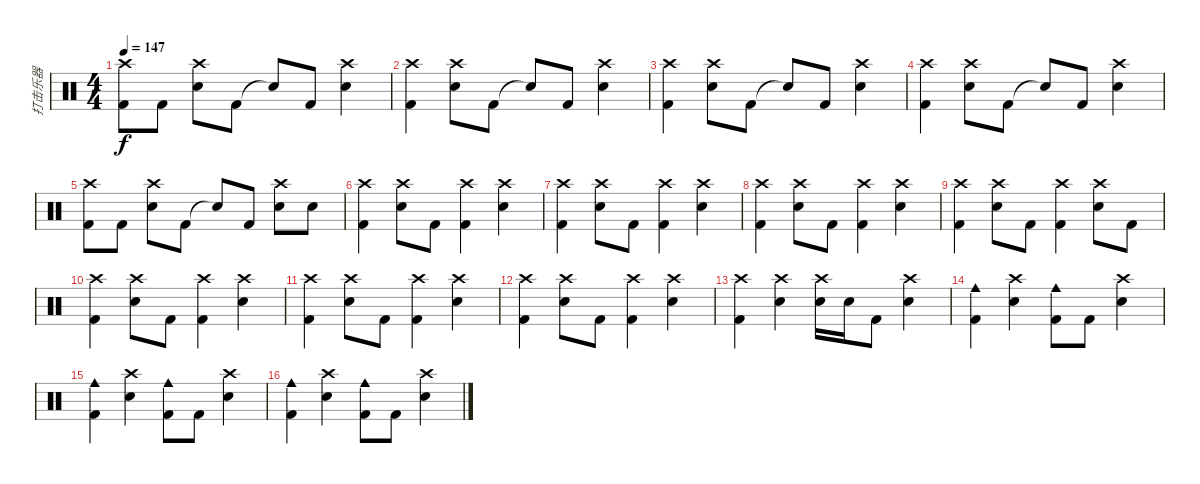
\track ("打击乐器" "打击乐器") {instrument percussion}
\staff {score}
\articulation defaults
\ts (4 4)
\tempo 147
\clef neutral
\ks c
("Crash high (hit)" "Kick (hit) 2").8{dy f} "Kick (hit) 2".8 ("Crash high (hit)" "Snare (hit) 2").8 "Kick (hit) 2".8 "Snare (hit)"{t}.8 "Kick (hit) 2".8 ("Crash high (hit)" "Snare (hit) 2").4 |
("Crash high (hit)" "Kick (hit) 2").4 ("Crash high (hit)" "Snare (hit) 2").8 "Kick (hit) 2".8 "Snare (hit)"{t}.8 "Kick (hit) 2".8 ("Crash high (hit)" "Snare (hit) 2").4 |
("Crash high (hit)" "Kick (hit) 2").4 ("Crash high (hit)" "Snare (hit) 2").8 "Kick (hit) 2".8 "Snare (hit)"{t}.8 "Kick (hit) 2".8 ("Crash high (hit)" "Snare (hit) 2").4 |
("Crash high (hit)" "Kick (hit) 2").4 ("Crash high (hit)" "Snare (hit) 2").8 "Kick (hit) 2".8 "Snare (hit)"{t}.8 "Kick (hit) 2".8 ("Crash high (hit)" "Snare (hit) 2").4 |
("Crash high (hit)" "Kick (hit) 2").8 "Kick (hit) 2".8 ("Crash high (hit)" "Snare (hit) 2").8 "Kick (hit) 2".8 "Snare (hit)"{t}.8 "Kick (hit) 2".8 ("Crash high (hit)" "Snare (hit) 2").8 "Snare (hit) 2".8 |
("Crash high (hit)" "Kick (hit) 2").4 ("Crash high (hit)" "Snare (hit) 2").8 "Kick (hit) 2".8 ("Crash high (hit)" "Kick (hit) 2").4 ("Crash high (hit)" "Snare (hit) 2").4 |
("Crash high (hit)" "Kick (hit) 2").4 ("Crash high (hit)" "Snare (hit) 2").8 "Kick (hit) 2".8 ("Crash high (hit)" "Kick (hit) 2").4 ("Crash high (hit)" "Snare (hit) 2").4 |
("Crash high (hit)" "Kick (hit) 2").4 ("Crash high (hit)" "Snare (hit) 2").8 "Kick (hit) 2".8 ("Crash high (hit)" "Kick (hit) 2").4 ("Crash high (hit)" "Snare (hit) 2").4 |
("Crash high (hit)" "Kick (hit) 2").4 ("Crash high (hit)" "Snare (hit) 2").8 "Kick (hit) 2".8 ("Crash high (hit)" "Kick (hit) 2").4 ("Crash high (hit)" "Snare (hit) 2").8 "Kick (hit) 2".8 |
("Crash high (hit)" "Kick (hit) 2").4 ("Crash high (hit)" "Snare (hit) 2").8 "Kick (hit) 2".8 ("Crash high (hit)" "Kick (hit) 2").4 ("Crash high (hit)" "Snare (hit) 2").4 |
("Crash high (hit)" "Kick (hit) 2").4 ("Crash high (hit)" "Snare (hit) 2").8 "Kick (hit) 2".8 ("Crash high (hit)" "Kick (hit) 2").4 ("Crash high (hit)" "Snare (hit) 2").4 |
("Crash high (hit)" "Kick (hit) 2").4 ("Crash high (hit)" "Snare (hit) 2").8 "Kick (hit) 2".8 ("Crash high (hit)" "Kick (hit) 2").4 ("Crash high (hit)" "Snare (hit) 2").4 |
("Crash high (hit)" "Kick (hit) 2").4 ("Crash high (hit)" "Snare (hit) 2").4 ("Crash high (hit)" "Snare (hit) 2").16 "Snare (hit) 2".16 "Kick (hit) 2".8 ("Crash high (hit)" "Snare (hit) 2").4 |
("Cowbell medium (hit)" "Kick (hit) 2").4 ("Crash high (hit)" "Snare (hit) 2").4 ("Cowbell medium (hit)" "Kick (hit) 2").8 "Kick (hit) 2".8 ("Crash high (hit)" "Snare (hit) 2").4 |
("Cowbell medium (hit)" "Kick (hit) 2").4 ("Crash high (hit)" "Snare (hit) 2").4 ("Cowbell medium (hit)" "Kick (hit) 2").8 "Kick (hit) 2".8 ("Crash high (hit)" "Snare (hit) 2").4 |
("Cowbell medium (hit)" "Kick (hit) 2").4 ("Crash high (hit)" "Snare (hit) 2").4 ("Cowbell medium (hit)" "Kick (hit) 2").8 "Kick (hit) 2".8 ("Crash high (hit)" "Snare (hit) 2").4
